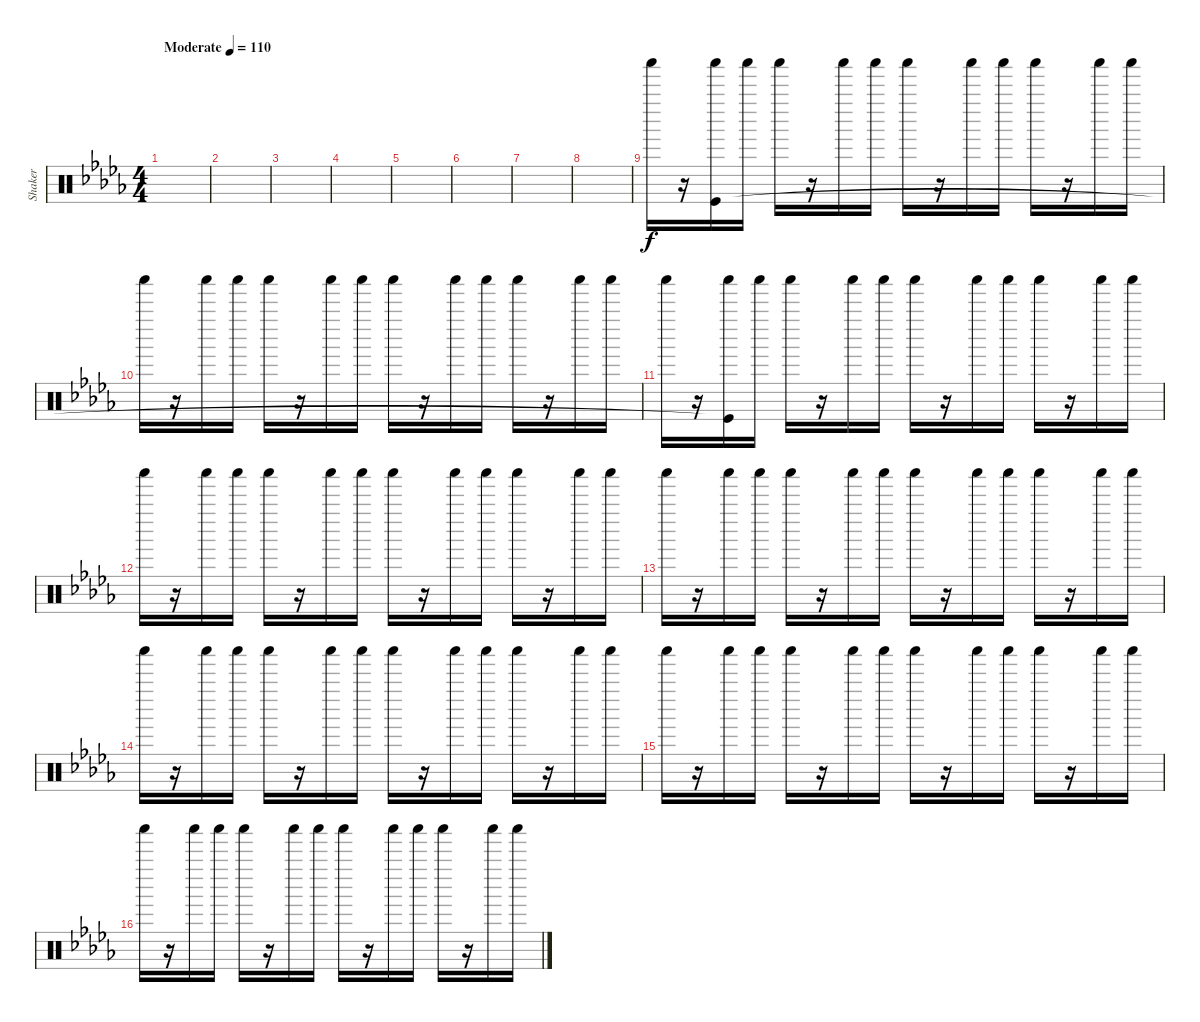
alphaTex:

\track ("Shaker" "Shaker") {instrument percussion}
\staff {score}
\articulation defaults
\ts (4 4)
\tempo (110 "Moderate")
\clef neutral
\ks db
|
|
|
|
|
|
|
|
"Shaker (hit)".16 r.16 ("Shaker (hit)" "Kick (hit)").16 "Shaker (hit)".16 "Shaker (hit)".16 r.16 "Shaker (hit)".16 "Shaker (hit)".16 "Shaker (hit)".16 r.16 "Shaker (hit)".16 "Shaker (hit)".16 "Shaker (hit)".16 r.16 "Shaker (hit)".16 "Shaker (hit)".16 |
"Shaker (hit)".16 r.16 "Shaker (hit)".16 "Shaker (hit)".16 "Shaker (hit)".16 r.16 "Shaker (hit)".16 "Shaker (hit)".16 "Shaker (hit)".16 r.16 "Shaker (hit)".16 "Shaker (hit)".16 "Shaker (hit)".16 r.16 "Shaker (hit)".16 "Shaker (hit)".16 |
"Shaker (hit)".16 r.16 ("Shaker (hit)" "Kick (hit)"{t}).16 "Shaker (hit)".16 "Shaker (hit)".16 r.16 "Shaker (hit)".16 "Shaker (hit)".16 "Shaker (hit)".16 r.16 "Shaker (hit)".16 "Shaker (hit)".16 "Shaker (hit)".16 r.16 "Shaker (hit)".16 "Shaker (hit)".16 |
"Shaker (hit)".16 r.16 "Shaker (hit)".16 "Shaker (hit)".16 "Shaker (hit)".16 r.16 "Shaker (hit)".16 "Shaker (hit)".16 "Shaker (hit)".16 r.16 "Shaker (hit)".16 "Shaker (hit)".16 "Shaker (hit)".16 r.16 "Shaker (hit)".16 "Shaker (hit)".16 |
"Shaker (hit)".16 r.16 "Shaker (hit)".16 "Shaker (hit)".16 "Shaker (hit)".16 r.16 "Shaker (hit)".16 "Shaker (hit)".16 "Shaker (hit)".16 r.16 "Shaker (hit)".16 "Shaker (hit)".16 "Shaker (hit)".16 r.16 "Shaker (hit)".16 "Shaker (hit)".16 |
"Shaker (hit)".16 r.16 "Shaker (hit)".16 "Shaker (hit)".16 "Shaker (hit)".16 r.16 "Shaker (hit)".16 "Shaker (hit)".16 "Shaker (hit)".16 r.16 "Shaker (hit)".16 "Shaker (hit)".16 "Shaker (hit)".16 r.16 "Shaker (hit)".16 "Shaker (hit)".16 |
"Shaker (hit)".16 r.16 "Shaker (hit)".16 "Shaker (hit)".16 "Shaker (hit)".16 r.16 "Shaker (hit)".16 "Shaker (hit)".16 "Shaker (hit)".16 r.16 "Shaker (hit)".16 "Shaker (hit)".16 "Shaker (hit)".16 r.16 "Shaker (hit)".16 "Shaker (hit)".16 |
"Shaker (hit)".16 r.16 "Shaker (hit)".16 "Shaker (hit)".16 "Shaker (hit)".16 r.16 "Shaker (hit)".16 "Shaker (hit)".16 "Shaker (hit)".16 r.16 "Shaker (hit)".16 "Shaker (hit)".16 "Shaker (hit)".16 r.16 "Shaker (hit)".16 "Shaker (hit)".16
